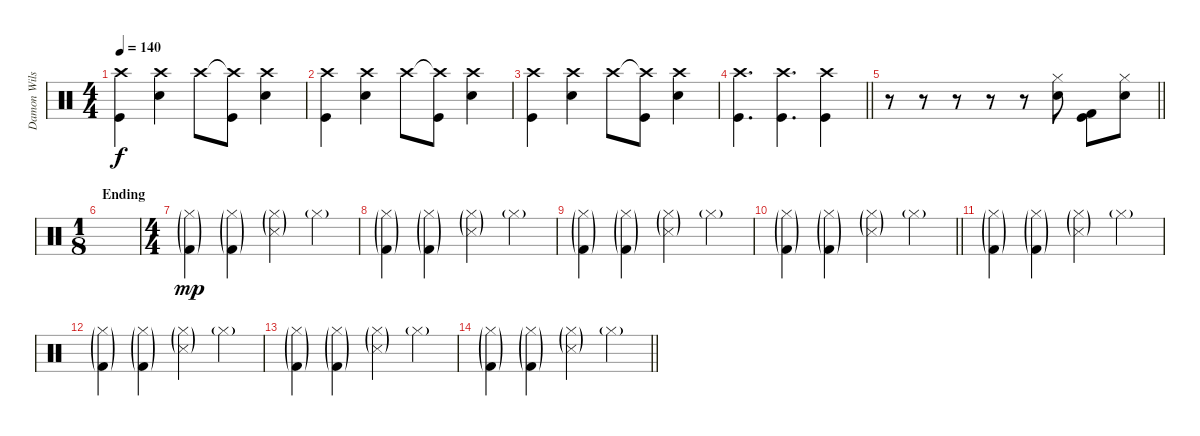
\track ("Damon Wilson" "Damon Wils") {instrument percussion}
\staff {score}
\articulation defaults
\ts (4 4)
\tempo 140
\clef neutral
\ks c
("Crash high (hit)" "Kick (hit)").4{dy f} ("Crash high (hit)" "Snare (hit) 2").4 "Crash high (hit)".8 ("Crash high (hit)"{t} "Kick (hit)").8 ("Crash high (hit)" "Snare (hit) 2").4 |
("Crash high (hit)" "Kick (hit)").4 ("Crash high (hit)" "Snare (hit) 2").4 "Crash high (hit)".8 ("Crash high (hit)"{t} "Kick (hit)").8 ("Crash high (hit)" "Snare (hit) 2").4 |
("Crash high (hit)" "Kick (hit)").4 ("Crash high (hit)" "Snare (hit) 2").4 "Crash high (hit)".8 ("Crash high (hit)"{t} "Kick (hit)").8 ("Crash high (hit)" "Snare (hit) 2").4 |
\barLineRight lightlight
("Crash high (hit)" "Kick (hit)").4{d} ("Crash high (hit)" "Kick (hit)").4{d} ("Crash high (hit)" "Kick (hit)").4 |
\barLineRight lightlight
r.8 r.8 r.8 r.8 r.8 ("Hi-Hat (closed)" "Snare (hit) 2").8 ("Kick (hit) 2" "Kick (hit)").8 ("Hi-Hat (closed)" "Snare (hit) 2").8 |
\ts (1 8)
\section ("" "Ending")
|
\ts (4 4)
("Hi-Hat (closed)"{g} "Kick (hit) 2"{g}).4{dy mp} ("Hi-Hat (closed)"{g} "Kick (hit) 2"{g}).4 ("Hi-Hat (closed)"{g} "Snare (side stick) 3"{g}).4 "Hi-Hat (closed)"{g}.4 |
("Hi-Hat (closed)"{g} "Kick (hit) 2"{g}).4 ("Hi-Hat (closed)"{g} "Kick (hit) 2"{g}).4 ("Hi-Hat (closed)"{g} "Snare (side stick) 3"{g}).4 "Hi-Hat (closed)"{g}.4 |
("Hi-Hat (closed)"{g} "Kick (hit) 2"{g}).4 ("Hi-Hat (closed)"{g} "Kick (hit) 2"{g}).4 ("Hi-Hat (closed)"{g} "Snare (side stick) 3"{g}).4 "Hi-Hat (closed)"{g}.4 |
\barLineRight lightlight
("Hi-Hat (closed)"{g} "Kick (hit) 2"{g}).4 ("Hi-Hat (closed)"{g} "Kick (hit) 2"{g}).4 ("Hi-Hat (closed)"{g} "Snare (side stick) 3"{g}).4 "Hi-Hat (closed)"{g}.4 |
("Hi-Hat (closed)"{g} "Kick (hit) 2"{g}).4 ("Hi-Hat (closed)"{g} "Kick (hit) 2"{g}).4 ("Hi-Hat (closed)"{g} "Snare (side stick) 3"{g}).4 "Hi-Hat (closed)"{g}.4 |
("Hi-Hat (closed)"{g} "Kick (hit) 2"{g}).4 ("Hi-Hat (closed)"{g} "Kick (hit) 2"{g}).4 ("Hi-Hat (closed)"{g} "Snare (side stick) 3"{g}).4 "Hi-Hat (closed)"{g}.4 |
("Hi-Hat (closed)"{g} "Kick (hit) 2"{g}).4 ("Hi-Hat (closed)"{g} "Kick (hit) 2"{g}).4 ("Hi-Hat (closed)"{g} "Snare (side stick) 3"{g}).4 "Hi-Hat (closed)"{g}.4 |
\barLineRight lightlight
("Hi-Hat (closed)"{g} "Kick (hit) 2"{g}).4 ("Hi-Hat (closed)"{g} "Kick (hit) 2"{g}).4 ("Hi-Hat (closed)"{g} "Snare (side stick) 3"{g}).4 "Hi-Hat (closed)"{g}.4
